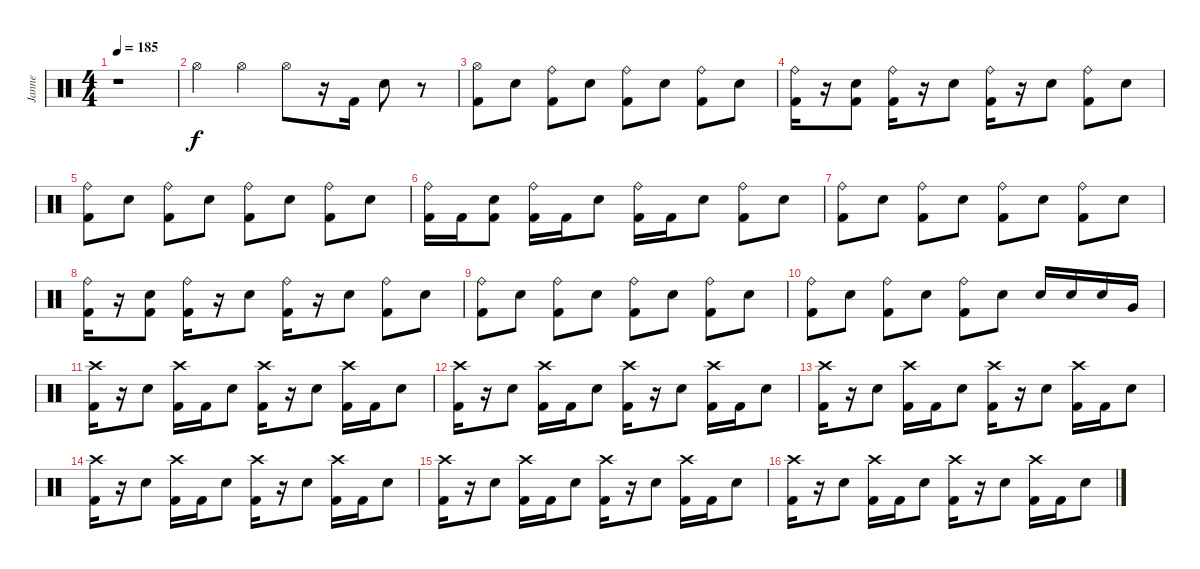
\track ("Janne" "Janne") {instrument percussion}
\staff {score}
\articulation defaults
\ts (4 4)
\tempo 185
\clef neutral
\ks c
r.1{dy f} |
"Hi-Hat (open)".4 "Hi-Hat (open)".4 "Hi-Hat (open)".8 r.16 "Kick (hit) 2".16 "Electric Snare (hit)".8 r.8 |
("Hi-Hat (open)" "Kick (hit) 2").8 "Electric Snare (hit)".8 ("Ride (bell)" "Kick (hit) 2").8 "Electric Snare (hit)".8 ("Ride (bell)" "Kick (hit) 2").8 "Electric Snare (hit)".8 ("Ride (bell)" "Kick (hit) 2").8 "Electric Snare (hit)".8 |
("Ride (bell)" "Kick (hit) 2").16 r.16 ("Electric Snare (hit)" "Kick (hit) 2").8 ("Ride (bell)" "Kick (hit) 2").16 r.16 "Electric Snare (hit)".8 ("Ride (bell)" "Kick (hit) 2").16 r.16 "Electric Snare (hit)".8 ("Ride (bell)" "Kick (hit) 2").8 "Electric Snare (hit)".8 |
("Ride (bell)" "Kick (hit) 2").8 "Electric Snare (hit)".8 ("Ride (bell)" "Kick (hit) 2").8 "Electric Snare (hit)".8 ("Ride (bell)" "Kick (hit) 2").8 "Electric Snare (hit)".8 ("Ride (bell)" "Kick (hit) 2").8 "Electric Snare (hit)".8 |
("Ride (bell)" "Kick (hit) 2").16 "Kick (hit) 2".16 ("Electric Snare (hit)" "Kick (hit) 2").8 ("Ride (bell)" "Kick (hit) 2").16 "Kick (hit) 2".16 "Electric Snare (hit)".8 ("Ride (bell)" "Kick (hit) 2").16 "Kick (hit) 2".16 "Electric Snare (hit)".8 ("Ride (bell)" "Kick (hit) 2").8 "Electric Snare (hit)".8 |
("Ride (bell)" "Kick (hit) 2").8 "Electric Snare (hit)".8 ("Ride (bell)" "Kick (hit) 2").8 "Electric Snare (hit)".8 ("Ride (bell)" "Kick (hit) 2").8 "Electric Snare (hit)".8 ("Ride (bell)" "Kick (hit) 2").8 "Electric Snare (hit)".8 |
("Ride (bell)" "Kick (hit) 2").16 r.16 ("Electric Snare (hit)" "Kick (hit) 2").8 ("Ride (bell)" "Kick (hit) 2").16 r.16 "Electric Snare (hit)".8 ("Ride (bell)" "Kick (hit) 2").16 r.16 "Electric Snare (hit)".8 ("Ride (bell)" "Kick (hit) 2").8 "Electric Snare (hit)".8 |
("Ride (bell)" "Kick (hit) 2").8 "Electric Snare (hit)".8 ("Ride (bell)" "Kick (hit) 2").8 "Electric Snare (hit)".8 ("Ride (bell)" "Kick (hit) 2").8 "Electric Snare (hit)".8 ("Ride (bell)" "Kick (hit) 2").8 "Electric Snare (hit)".8 |
("Ride (bell)" "Kick (hit) 2").8 "Electric Snare (hit)".8 ("Ride (bell)" "Kick (hit) 2").8 "Electric Snare (hit)".8 ("Ride (bell)" "Kick (hit) 2").8 "Electric Snare (hit)".8 "Electric Snare (hit)".16 "Electric Snare (hit)".16 "Electric Snare (hit)".16 "Very Low Tom (hit)".16 |
("Crash high (hit)" "Kick (hit) 2").16 r.16 "Electric Snare (hit)".8 ("Crash high (hit)" "Kick (hit) 2").16 "Kick (hit) 2".16 "Electric Snare (hit)".8 ("Crash high (hit)" "Kick (hit) 2").16 r.16 "Electric Snare (hit)".8 ("Crash high (hit)" "Kick (hit) 2").16 "Kick (hit) 2".16 "Electric Snare (hit)".8 |
("Crash high (hit)" "Kick (hit) 2").16 r.16 "Electric Snare (hit)".8 ("Crash high (hit)" "Kick (hit) 2").16 "Kick (hit) 2".16 "Electric Snare (hit)".8 ("Crash high (hit)" "Kick (hit) 2").16 r.16 "Electric Snare (hit)".8 ("Crash high (hit)" "Kick (hit) 2").16 "Kick (hit) 2".16 "Electric Snare (hit)".8 |
("Crash high (hit)" "Kick (hit) 2").16 r.16 "Electric Snare (hit)".8 ("Crash high (hit)" "Kick (hit) 2").16 "Kick (hit) 2".16 "Electric Snare (hit)".8 ("Crash high (hit)" "Kick (hit) 2").16 r.16 "Electric Snare (hit)".8 ("Crash high (hit)" "Kick (hit) 2").16 "Kick (hit) 2".16 "Electric Snare (hit)".8 |
("Crash high (hit)" "Kick (hit) 2").16 r.16 "Electric Snare (hit)".8 ("Crash high (hit)" "Kick (hit) 2").16 "Kick (hit) 2".16 "Electric Snare (hit)".8 ("Crash high (hit)" "Kick (hit) 2").16 r.16 "Electric Snare (hit)".8 ("Crash high (hit)" "Kick (hit) 2").16 "Kick (hit) 2".16 "Electric Snare (hit)".8 |
("Crash high (hit)" "Kick (hit) 2").16 r.16 "Electric Snare (hit)".8 ("Crash high (hit)" "Kick (hit) 2").16 "Kick (hit) 2".16 "Electric Snare (hit)".8 ("Crash high (hit)" "Kick (hit) 2").16 r.16 "Electric Snare (hit)".8 ("Crash high (hit)" "Kick (hit) 2").16 "Kick (hit) 2".16 "Electric Snare (hit)".8 |
("Crash high (hit)" "Kick (hit) 2").16 r.16 "Electric Snare (hit)".8 ("Crash high (hit)" "Kick (hit) 2").16 "Kick (hit) 2".16 "Electric Snare (hit)".8 ("Crash high (hit)" "Kick (hit) 2").16 r.16 "Electric Snare (hit)".8 ("Crash high (hit)" "Kick (hit) 2").16 "Kick (hit) 2".16 "Electric Snare (hit)".8
